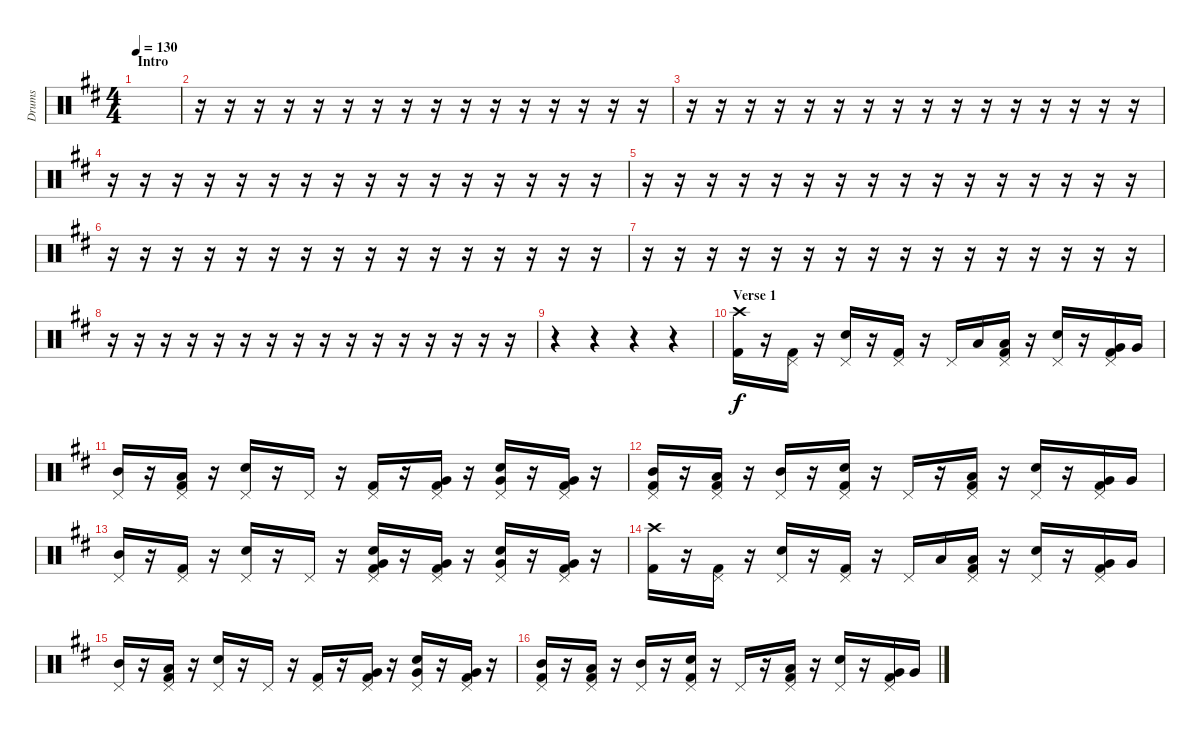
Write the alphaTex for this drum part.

\track ("Drums" "Drums") {instrument percussion}
\staff {score}
\articulation defaults
\ts (4 4)
\section ("" "Intro")
\tempo 130
\clef neutral
\ks d
|
r.16 r.16 r.16 r.16 r.16 r.16 r.16 r.16 r.16 r.16 r.16 r.16 r.16 r.16 r.16 r.16 |
r.16 r.16 r.16 r.16 r.16 r.16 r.16 r.16 r.16 r.16 r.16 r.16 r.16 r.16 r.16 r.16 |
r.16 r.16 r.16 r.16 r.16 r.16 r.16 r.16 r.16 r.16 r.16 r.16 r.16 r.16 r.16 r.16 |
r.16 r.16 r.16 r.16 r.16 r.16 r.16 r.16 r.16 r.16 r.16 r.16 r.16 r.16 r.16 r.16 |
r.16 r.16 r.16 r.16 r.16 r.16 r.16 r.16 r.16 r.16 r.16 r.16 r.16 r.16 r.16 r.16 |
r.16 r.16 r.16 r.16 r.16 r.16 r.16 r.16 r.16 r.16 r.16 r.16 r.16 r.16 r.16 r.16 |
r.16 r.16 r.16 r.16 r.16 r.16 r.16 r.16 r.16 r.16 r.16 r.16 r.16 r.16 r.16 r.16 |
r.4 r.4 r.4 r.4 |
\section ("" "Verse 1")
("Crash high (hit)" "Kick (hit) 2").16 r.16 ("Pedal Hi-Hat (hit)" "Kick (hit) 2").16 r.16 ("Pedal Hi-Hat (hit)" "Electric Snare (hit)").16 r.16 ("Pedal Hi-Hat (hit)" "Kick (hit) 2").16 r.16 "Pedal Hi-Hat (hit)".16 "Low Tom (hit)".16 ("Pedal Hi-Hat (hit)" "Low Tom (hit)" "Kick (hit) 2").16 r.16 ("Pedal Hi-Hat (hit)" "Electric Snare (hit)").16 r.16 ("Pedal Hi-Hat (hit)" "Very Low Tom (hit)" "Kick (hit) 2").16 "Very Low Tom (hit)".16 |
("Mid Tom (hit)" "Pedal Hi-Hat (hit)").16 r.16 ("Pedal Hi-Hat (hit)" "Low Tom (hit)" "Kick (hit) 2").16 r.16 ("Pedal Hi-Hat (hit)" "Electric Snare (hit)").16 r.16 "Pedal Hi-Hat (hit)".16 r.16 ("Pedal Hi-Hat (hit)" "Kick (hit) 2").16 r.16 ("Pedal Hi-Hat (hit)" "Very Low Tom (hit)" "Kick (hit) 2").16 r.16 ("Pedal Hi-Hat (hit)" "Electric Snare (hit)" "Very Low Tom (hit)").16 r.16 ("Pedal Hi-Hat (hit)" "Very Low Tom (hit)" "Kick (hit) 2").16 r.16 |
("Mid Tom (hit)" "Pedal Hi-Hat (hit)" "Kick (hit) 2").16 r.16 ("Pedal Hi-Hat (hit)" "Low Tom (hit)" "Kick (hit) 2").16 r.16 ("Mid Tom (hit)" "Pedal Hi-Hat (hit)").16 r.16 ("Pedal Hi-Hat (hit)" "Electric Snare (hit)" "Kick (hit) 2").16 r.16 "Pedal Hi-Hat (hit)".16 r.16 ("Pedal Hi-Hat (hit)" "Low Tom (hit)" "Kick (hit) 2").16 r.16 ("Pedal Hi-Hat (hit)" "Electric Snare (hit)").16 r.16 ("Pedal Hi-Hat (hit)" "Very Low Tom (hit)" "Kick (hit) 2").16 "Very Low Tom (hit)".16 |
("Mid Tom (hit)" "Pedal Hi-Hat (hit)").16 r.16 ("Pedal Hi-Hat (hit)" "Kick (hit) 2").16 r.16 ("Pedal Hi-Hat (hit)" "Electric Snare (hit)").16 r.16 "Pedal Hi-Hat (hit)".16 r.16 ("Pedal Hi-Hat (hit)" "Electric Snare (hit)" "Very Low Tom (hit)" "Kick (hit) 2").16 r.16 ("Pedal Hi-Hat (hit)" "Very Low Tom (hit)" "Kick (hit) 2").16 r.16 ("Pedal Hi-Hat (hit)" "Electric Snare (hit)" "Very Low Tom (hit)").16 r.16 ("Pedal Hi-Hat (hit)" "Very Low Tom (hit)" "Kick (hit) 2").16 r.16 |
("Crash high (hit)" "Kick (hit) 2").16 r.16 ("Pedal Hi-Hat (hit)" "Kick (hit) 2").16 r.16 ("Pedal Hi-Hat (hit)" "Electric Snare (hit)").16 r.16 ("Pedal Hi-Hat (hit)" "Kick (hit) 2").16 r.16 "Pedal Hi-Hat (hit)".16 "Low Tom (hit)".16 ("Pedal Hi-Hat (hit)" "Low Tom (hit)" "Kick (hit) 2").16 r.16 ("Pedal Hi-Hat (hit)" "Electric Snare (hit)").16 r.16 ("Pedal Hi-Hat (hit)" "Very Low Tom (hit)" "Kick (hit) 2").16 "Very Low Tom (hit)".16 |
("Mid Tom (hit)" "Pedal Hi-Hat (hit)").16 r.16 ("Pedal Hi-Hat (hit)" "Low Tom (hit)" "Kick (hit) 2").16 r.16 ("Pedal Hi-Hat (hit)" "Electric Snare (hit)").16 r.16 "Pedal Hi-Hat (hit)".16 r.16 ("Pedal Hi-Hat (hit)" "Kick (hit) 2").16 r.16 ("Pedal Hi-Hat (hit)" "Very Low Tom (hit)" "Kick (hit) 2").16 r.16 ("Pedal Hi-Hat (hit)" "Electric Snare (hit)" "Very Low Tom (hit)").16 r.16 ("Pedal Hi-Hat (hit)" "Very Low Tom (hit)" "Kick (hit) 2").16 r.16 |
("Mid Tom (hit)" "Pedal Hi-Hat (hit)" "Kick (hit) 2").16 r.16 ("Pedal Hi-Hat (hit)" "Low Tom (hit)" "Kick (hit) 2").16 r.16 ("Mid Tom (hit)" "Pedal Hi-Hat (hit)").16 r.16 ("Pedal Hi-Hat (hit)" "Electric Snare (hit)" "Kick (hit) 2").16 r.16 "Pedal Hi-Hat (hit)".16 r.16 ("Pedal Hi-Hat (hit)" "Low Tom (hit)" "Kick (hit) 2").16 r.16 ("Pedal Hi-Hat (hit)" "Electric Snare (hit)").16 r.16 ("Pedal Hi-Hat (hit)" "Very Low Tom (hit)" "Kick (hit) 2").16 "Very Low Tom (hit)".16
